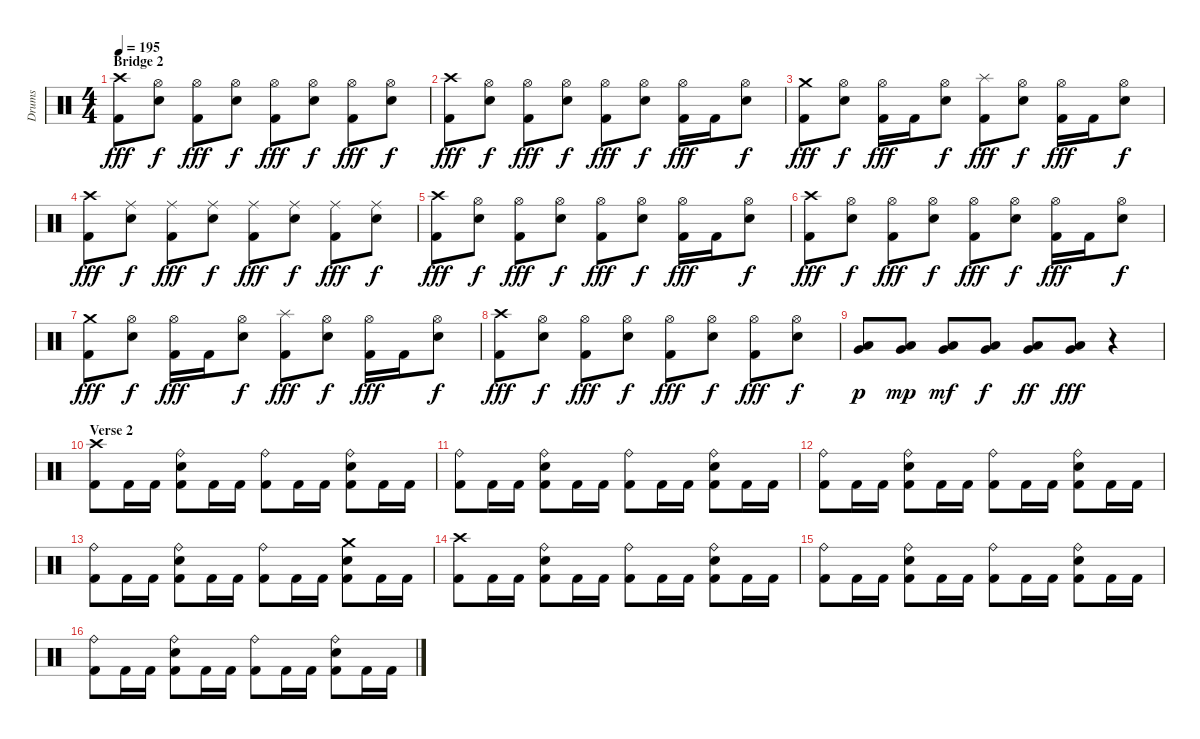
\track ("Drums" "Drums") {instrument percussion}
\staff {score}
\articulation defaults
\ts (4 4)
\section ("" "Bridge 2")
\tempo 195
\clef neutral
\ks c
("Crash high (hit)" "Kick (hit) 2").8{dy fff} ("Hi-Hat (open)" "Snare (hit) 2").8{dy f} ("Hi-Hat (open)" "Kick (hit) 2").8{dy fff} ("Hi-Hat (open)" "Snare (hit) 2").8{dy f} ("Hi-Hat (open)" "Kick (hit) 2").8{dy fff} ("Hi-Hat (open)" "Snare (hit) 2").8{dy f} ("Hi-Hat (open)" "Kick (hit) 2").8{dy fff} ("Hi-Hat (open)" "Snare (hit) 2").8{dy f} |
("Crash high (hit)" "Kick (hit) 2").8{dy fff} ("Hi-Hat (open)" "Snare (hit) 2").8{dy f} ("Hi-Hat (open)" "Kick (hit) 2").8{dy fff} ("Hi-Hat (open)" "Snare (hit) 2").8{dy f} ("Hi-Hat (open)" "Kick (hit) 2").8{dy fff} ("Hi-Hat (open)" "Snare (hit) 2").8{dy f} ("Hi-Hat (open)" "Kick (hit) 2").16{dy fff} "Kick (hit) 2".16 ("Hi-Hat (open)" "Snare (hit) 2").8{dy f} |
("Crash medium (hit)" "Kick (hit) 2").8{dy fff} ("Hi-Hat (open)" "Snare (hit) 2").8{dy f} ("Hi-Hat (open)" "Kick (hit) 2").16{dy fff} "Kick (hit) 2".16 ("Hi-Hat (open)" "Snare (hit) 2").8{dy f} ("Splash (hit)" "Kick (hit) 2").8{dy fff} ("Hi-Hat (open)" "Snare (hit) 2").8{dy f} ("Hi-Hat (open)" "Kick (hit) 2").16{dy fff} "Kick (hit) 2".16 ("Hi-Hat (open)" "Snare (hit) 2").8{dy f} |
("Crash high (hit)" "Kick (hit) 2").8{dy fff} ("Ride (middle)" "Snare (hit) 2").8{dy f} ("Ride (middle)" "Kick (hit) 2").8{dy fff} ("Ride (middle)" "Snare (hit) 2").8{dy f} ("Ride (middle)" "Kick (hit) 2").8{dy fff} ("Ride (middle)" "Snare (hit) 2").8{dy f} ("Ride (middle)" "Kick (hit) 2").8{dy fff} ("Ride (middle)" "Snare (hit) 2").8{dy f} |
("Crash high (hit)" "Kick (hit) 2").8{dy fff} ("Hi-Hat (open)" "Snare (hit) 2").8{dy f} ("Hi-Hat (open)" "Kick (hit) 2").8{dy fff} ("Hi-Hat (open)" "Snare (hit) 2").8{dy f} ("Hi-Hat (open)" "Kick (hit) 2").8{dy fff} ("Hi-Hat (open)" "Snare (hit) 2").8{dy f} ("Hi-Hat (open)" "Kick (hit) 2").16{dy fff} "Kick (hit) 2".16 ("Hi-Hat (open)" "Snare (hit) 2").8{dy f} |
("Crash high (hit)" "Kick (hit) 2").8{dy fff} ("Hi-Hat (open)" "Snare (hit) 2").8{dy f} ("Hi-Hat (open)" "Kick (hit) 2").8{dy fff} ("Hi-Hat (open)" "Snare (hit) 2").8{dy f} ("Hi-Hat (open)" "Kick (hit) 2").8{dy fff} ("Hi-Hat (open)" "Snare (hit) 2").8{dy f} ("Hi-Hat (open)" "Kick (hit) 2").16{dy fff} "Kick (hit) 2".16 ("Hi-Hat (open)" "Snare (hit) 2").8{dy f} |
("Crash medium (hit)" "Kick (hit) 2").8{dy fff} ("Hi-Hat (open)" "Snare (hit) 2").8{dy f} ("Hi-Hat (open)" "Kick (hit) 2").16{dy fff} "Kick (hit) 2".16 ("Hi-Hat (open)" "Snare (hit) 2").8{dy f} ("Splash (hit)" "Kick (hit) 2").8{dy fff} ("Hi-Hat (open)" "Snare (hit) 2").8{dy f} ("Hi-Hat (open)" "Kick (hit) 2").16{dy fff} "Kick (hit) 2".16 ("Hi-Hat (open)" "Snare (hit) 2").8{dy f} |
("Crash high (hit)" "Kick (hit) 2").8{dy fff} ("Hi-Hat (open)" "Snare (hit) 2").8{dy f} ("Hi-Hat (open)" "Kick (hit) 2").8{dy fff} ("Hi-Hat (open)" "Snare (hit) 2").8{dy f} ("Hi-Hat (open)" "Kick (hit) 2").8{dy fff} ("Hi-Hat (open)" "Snare (hit) 2").8{dy f} ("Hi-Hat (open)" "Kick (hit) 2").8{dy fff} ("Hi-Hat (open)" "Snare (hit) 2").8{dy f} |
("Very Low Tom (hit)" "Low Floor Tom (hit)").8{dy p} ("Very Low Tom (hit)" "Low Floor Tom (hit)").8{dy mp} ("Very Low Tom (hit)" "Low Floor Tom (hit)").8{dy mf} ("Very Low Tom (hit)" "Low Floor Tom (hit)").8{dy f} ("Very Low Tom (hit)" "Low Floor Tom (hit)").8{dy ff} ("Very Low Tom (hit)" "Low Floor Tom (hit)").8{dy fff} r.4 |
\section ("" "Verse 2")
("Crash high (hit)" "Kick (hit) 2").8 "Kick (hit) 2".16 "Kick (hit) 2".16 ("Ride (bell)" "Snare (hit) 2" "Kick (hit) 2").8 "Kick (hit) 2".16 "Kick (hit) 2".16 ("Ride (bell)" "Kick (hit) 2").8 "Kick (hit) 2".16 "Kick (hit) 2".16 ("Ride (bell)" "Snare (hit) 2" "Kick (hit) 2").8 "Kick (hit) 2".16 "Kick (hit) 2".16 |
("Ride (bell)" "Kick (hit) 2").8 "Kick (hit) 2".16 "Kick (hit) 2".16 ("Ride (bell)" "Snare (hit) 2" "Kick (hit) 2").8 "Kick (hit) 2".16 "Kick (hit) 2".16 ("Ride (bell)" "Kick (hit) 2").8 "Kick (hit) 2".16 "Kick (hit) 2".16 ("Ride (bell)" "Snare (hit) 2" "Kick (hit) 2").8 "Kick (hit) 2".16 "Kick (hit) 2".16 |
("Ride (bell)" "Kick (hit) 2").8 "Kick (hit) 2".16 "Kick (hit) 2".16 ("Ride (bell)" "Snare (hit) 2" "Kick (hit) 2").8 "Kick (hit) 2".16 "Kick (hit) 2".16 ("Ride (bell)" "Kick (hit) 2").8 "Kick (hit) 2".16 "Kick (hit) 2".16 ("Ride (bell)" "Snare (hit) 2" "Kick (hit) 2").8 "Kick (hit) 2".16 "Kick (hit) 2".16 |
("Ride (bell)" "Kick (hit) 2").8 "Kick (hit) 2".16 "Kick (hit) 2".16 ("Ride (bell)" "Snare (hit) 2" "Kick (hit) 2").8 "Kick (hit) 2".16 "Kick (hit) 2".16 ("Ride (bell)" "Kick (hit) 2").8 "Kick (hit) 2".16 "Kick (hit) 2".16 ("Crash medium (hit)" "Snare (hit) 2" "Kick (hit) 2").8 "Kick (hit) 2".16 "Kick (hit) 2".16 |
("Crash high (hit)" "Kick (hit) 2").8 "Kick (hit) 2".16 "Kick (hit) 2".16 ("Ride (bell)" "Snare (hit) 2" "Kick (hit) 2").8 "Kick (hit) 2".16 "Kick (hit) 2".16 ("Ride (bell)" "Kick (hit) 2").8 "Kick (hit) 2".16 "Kick (hit) 2".16 ("Ride (bell)" "Snare (hit) 2" "Kick (hit) 2").8 "Kick (hit) 2".16 "Kick (hit) 2".16 |
("Ride (bell)" "Kick (hit) 2").8 "Kick (hit) 2".16 "Kick (hit) 2".16 ("Ride (bell)" "Snare (hit) 2" "Kick (hit) 2").8 "Kick (hit) 2".16 "Kick (hit) 2".16 ("Ride (bell)" "Kick (hit) 2").8 "Kick (hit) 2".16 "Kick (hit) 2".16 ("Ride (bell)" "Snare (hit) 2" "Kick (hit) 2").8 "Kick (hit) 2".16 "Kick (hit) 2".16 |
("Ride (bell)" "Kick (hit) 2").8 "Kick (hit) 2".16 "Kick (hit) 2".16 ("Ride (bell)" "Snare (hit) 2" "Kick (hit) 2").8 "Kick (hit) 2".16 "Kick (hit) 2".16 ("Ride (bell)" "Kick (hit) 2").8 "Kick (hit) 2".16 "Kick (hit) 2".16 ("Ride (bell)" "Snare (hit) 2" "Kick (hit) 2").8 "Kick (hit) 2".16 "Kick (hit) 2".16
